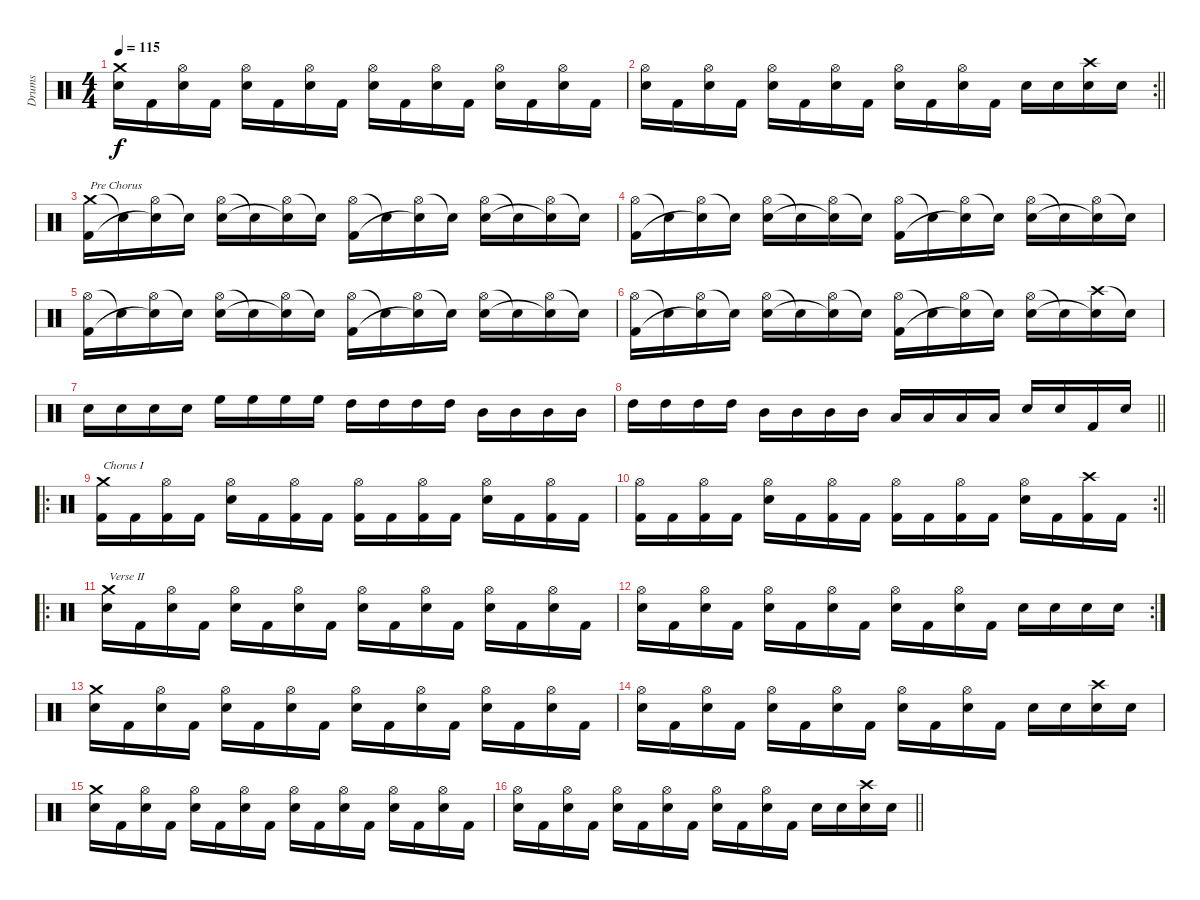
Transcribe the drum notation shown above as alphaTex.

\track ("Drums" "Drums") {instrument percussion}
\staff {score}
\articulation defaults
\ts (4 4)
\tempo 115
\clef neutral
\ks c
("Crash medium (hit)" "Electric Snare (hit)").16{dy f} "Kick (hit) 2".16 ("Hi-Hat (open)" "Electric Snare (hit)").16 "Kick (hit) 2".16 ("Hi-Hat (open)" "Electric Snare (hit)").16 "Kick (hit) 2".16 ("Hi-Hat (open)" "Electric Snare (hit)").16 "Kick (hit) 2".16 ("Hi-Hat (open)" "Electric Snare (hit)").16 "Kick (hit) 2".16 ("Hi-Hat (open)" "Electric Snare (hit)").16 "Kick (hit) 2".16 ("Hi-Hat (open)" "Electric Snare (hit)").16 "Kick (hit) 2".16 ("Hi-Hat (open)" "Electric Snare (hit)").16 "Kick (hit) 2".16 |
\rc 2
\barLineRight lightlight
("Hi-Hat (open)" "Electric Snare (hit)").16 "Kick (hit) 2".16 ("Hi-Hat (open)" "Electric Snare (hit)").16 "Kick (hit) 2".16 ("Hi-Hat (open)" "Electric Snare (hit)").16 "Kick (hit) 2".16 ("Hi-Hat (open)" "Electric Snare (hit)").16 "Kick (hit) 2".16 ("Hi-Hat (open)" "Electric Snare (hit)").16 "Kick (hit) 2".16 ("Hi-Hat (open)" "Electric Snare (hit)").16 "Kick (hit) 2".16 "Electric Snare (hit)".16 "Electric Snare (hit)".16 ("Crash high (hit)" "Electric Snare (hit)").16 "Electric Snare (hit)".16 |
("Crash medium (hit)" "Kick (hit) 2").16{txt "Pre Chorus"} "Snare (hit)"{t}.16 ("Hi-Hat (open)" "Snare (hit)"{t}).16 "Snare (hit)"{t}.16 ("Hi-Hat (open)" "Electric Snare (hit)").16 "Snare (hit)"{t}.16 ("Hi-Hat (open)" "Snare (hit)"{t}).16 "Snare (hit)"{t}.16 ("Hi-Hat (open)" "Kick (hit) 2").16 "Snare (hit)"{t}.16 ("Hi-Hat (open)" "Snare (hit)"{t}).16 "Snare (hit)"{t}.16 ("Hi-Hat (open)" "Electric Snare (hit)").16 "Snare (hit)"{t}.16 ("Hi-Hat (open)" "Snare (hit)"{t}).16 "Snare (hit)"{t}.16 |
("Hi-Hat (open)" "Kick (hit) 2").16 "Snare (hit)"{t}.16 ("Hi-Hat (open)" "Snare (hit)"{t}).16 "Snare (hit)"{t}.16 ("Hi-Hat (open)" "Electric Snare (hit)").16 "Snare (hit)"{t}.16 ("Hi-Hat (open)" "Snare (hit)"{t}).16 "Snare (hit)"{t}.16 ("Hi-Hat (open)" "Kick (hit) 2").16 "Snare (hit)"{t}.16 ("Hi-Hat (open)" "Snare (hit)"{t}).16 "Snare (hit)"{t}.16 ("Hi-Hat (open)" "Electric Snare (hit)").16 "Snare (hit)"{t}.16 ("Hi-Hat (open)" "Snare (hit)"{t}).16 "Snare (hit)"{t}.16 |
("Hi-Hat (open)" "Kick (hit) 2").16 "Snare (hit)"{t}.16 ("Hi-Hat (open)" "Snare (hit)"{t}).16 "Snare (hit)"{t}.16 ("Hi-Hat (open)" "Electric Snare (hit)").16 "Snare (hit)"{t}.16 ("Hi-Hat (open)" "Snare (hit)"{t}).16 "Snare (hit)"{t}.16 ("Hi-Hat (open)" "Kick (hit) 2").16 "Snare (hit)"{t}.16 ("Hi-Hat (open)" "Snare (hit)"{t}).16 "Snare (hit)"{t}.16 ("Hi-Hat (open)" "Electric Snare (hit)").16 "Snare (hit)"{t}.16 ("Hi-Hat (open)" "Snare (hit)"{t}).16 "Snare (hit)"{t}.16 |
("Hi-Hat (open)" "Kick (hit) 2").16 "Snare (hit)"{t}.16 ("Hi-Hat (open)" "Snare (hit)"{t}).16 "Snare (hit)"{t}.16 ("Hi-Hat (open)" "Electric Snare (hit)").16 "Snare (hit)"{t}.16 ("Hi-Hat (open)" "Snare (hit)"{t}).16 "Snare (hit)"{t}.16 ("Hi-Hat (open)" "Kick (hit) 2").16 "Snare (hit)"{t}.16 ("Hi-Hat (open)" "Snare (hit)"{t}).16 "Snare (hit)"{t}.16 ("Hi-Hat (open)" "Electric Snare (hit)").16 "Snare (hit)"{t}.16 ("Crash high (hit)" "Snare (hit)"{t}).16 "Snare (hit)"{t}.16 |
"Electric Snare (hit)".16 "Electric Snare (hit)".16 "Electric Snare (hit)".16 "Electric Snare (hit)".16 "High Floor Tom (hit)".16 "High Floor Tom (hit)".16 "High Floor Tom (hit)".16 "High Floor Tom (hit)".16 "High Tom (hit)".16 "High Tom (hit)".16 "High Tom (hit)".16 "High Tom (hit)".16 "Mid Tom (hit)".16 "Mid Tom (hit)".16 "Mid Tom (hit)".16 "Mid Tom (hit)".16 |
\barLineRight lightlight "High Tom (hit)".16 "High Tom (hit)".16 "High Tom (hit)".16 "High Tom (hit)".16 "Mid Tom (hit)".16 "Mid Tom (hit)".16 "Mid Tom (hit)".16 "Mid Tom (hit)".16 "Low Tom (hit)".16 "Low Tom (hit)".16 "Low Tom (hit)".16 "Low Tom (hit)".16 "Electric Snare (hit)".16 "Electric Snare (hit)".16 "Kick (hit) 2".16 "Electric Snare (hit)".16
|
\ro
("Crash medium (hit)" "Kick (hit) 2").16{txt "Chorus I"} "Kick (hit) 2".16 ("Hi-Hat (open)" "Kick (hit) 2").16 "Kick (hit) 2".16 ("Hi-Hat (open)" "Electric Snare (hit)").16 "Kick (hit) 2".16 ("Hi-Hat (open)" "Kick (hit) 2").16 "Kick (hit) 2".16 ("Hi-Hat (open)" "Kick (hit) 2").16 "Kick (hit) 2".16 ("Hi-Hat (open)" "Kick (hit) 2").16 "Kick (hit) 2".16 ("Hi-Hat (open)" "Electric Snare (hit)").16 "Kick (hit) 2".16 ("Hi-Hat (open)" "Kick (hit) 2").16 "Kick (hit) 2".16 |
\rc 2
\barLineRight lightlight
("Hi-Hat (open)" "Kick (hit) 2").16 "Kick (hit) 2".16 ("Hi-Hat (open)" "Kick (hit) 2").16 "Kick (hit) 2".16 ("Hi-Hat (open)" "Electric Snare (hit)").16 "Kick (hit) 2".16 ("Hi-Hat (open)" "Kick (hit) 2").16 "Kick (hit) 2".16 ("Hi-Hat (open)" "Kick (hit) 2").16 "Kick (hit) 2".16 ("Hi-Hat (open)" "Kick (hit) 2").16 "Kick (hit) 2".16 ("Hi-Hat (open)" "Electric Snare (hit)").16 "Kick (hit) 2".16 ("Crash high (hit)" "Kick (hit) 2").16 "Kick (hit) 2".16 |
\ro
("Crash medium (hit)" "Electric Snare (hit)").16{txt "Verse II"} "Kick (hit) 2".16 ("Hi-Hat (open)" "Electric Snare (hit)").16 "Kick (hit) 2".16 ("Hi-Hat (open)" "Electric Snare (hit)").16 "Kick (hit) 2".16 ("Hi-Hat (open)" "Electric Snare (hit)").16 "Kick (hit) 2".16 ("Hi-Hat (open)" "Electric Snare (hit)").16 "Kick (hit) 2".16 ("Hi-Hat (open)" "Electric Snare (hit)").16 "Kick (hit) 2".16 ("Hi-Hat (open)" "Electric Snare (hit)").16 "Kick (hit) 2".16 ("Hi-Hat (open)" "Electric Snare (hit)").16 "Kick (hit) 2".16 |
\rc 2
("Hi-Hat (open)" "Electric Snare (hit)").16 "Kick (hit) 2".16 ("Hi-Hat (open)" "Electric Snare (hit)").16 "Kick (hit) 2".16 ("Hi-Hat (open)" "Electric Snare (hit)").16 "Kick (hit) 2".16 ("Hi-Hat (open)" "Electric Snare (hit)").16 "Kick (hit) 2".16 ("Hi-Hat (open)" "Electric Snare (hit)").16 "Kick (hit) 2".16 ("Hi-Hat (open)" "Electric Snare (hit)").16 "Kick (hit) 2".16 "Electric Snare (hit)".16 "Electric Snare (hit)".16 "Electric Snare (hit)".16 "Electric Snare (hit)".16 |
("Crash medium (hit)" "Electric Snare (hit)").16 "Kick (hit) 2".16 ("Hi-Hat (open)" "Electric Snare (hit)").16 "Kick (hit) 2".16 ("Hi-Hat (open)" "Electric Snare (hit)").16 "Kick (hit) 2".16 ("Hi-Hat (open)" "Electric Snare (hit)").16 "Kick (hit) 2".16 ("Hi-Hat (open)" "Electric Snare (hit)").16 "Kick (hit) 2".16 ("Hi-Hat (open)" "Electric Snare (hit)").16 "Kick (hit) 2".16 ("Hi-Hat (open)" "Electric Snare (hit)").16 "Kick (hit) 2".16 ("Hi-Hat (open)" "Electric Snare (hit)").16 "Kick (hit) 2".16 |
("Hi-Hat (open)" "Electric Snare (hit)").16 "Kick (hit) 2".16 ("Hi-Hat (open)" "Electric Snare (hit)").16 "Kick (hit) 2".16 ("Hi-Hat (open)" "Electric Snare (hit)").16 "Kick (hit) 2".16 ("Hi-Hat (open)" "Electric Snare (hit)").16 "Kick (hit) 2".16 ("Hi-Hat (open)" "Electric Snare (hit)").16 "Kick (hit) 2".16 ("Hi-Hat (open)" "Electric Snare (hit)").16 "Kick (hit) 2".16 "Electric Snare (hit)".16 "Electric Snare (hit)".16 ("Crash high (hit)" "Electric Snare (hit)").16 "Electric Snare (hit)".16 |
("Crash medium (hit)" "Electric Snare (hit)").16 "Kick (hit) 2".16 ("Hi-Hat (open)" "Electric Snare (hit)").16 "Kick (hit) 2".16 ("Hi-Hat (open)" "Electric Snare (hit)").16 "Kick (hit) 2".16 ("Hi-Hat (open)" "Electric Snare (hit)").16 "Kick (hit) 2".16 ("Hi-Hat (open)" "Electric Snare (hit)").16 "Kick (hit) 2".16 ("Hi-Hat (open)" "Electric Snare (hit)").16 "Kick (hit) 2".16 ("Hi-Hat (open)" "Electric Snare (hit)").16 "Kick (hit) 2".16 ("Hi-Hat (open)" "Electric Snare (hit)").16 "Kick (hit) 2".16 |
\barLineRight lightlight
("Hi-Hat (open)" "Electric Snare (hit)").16 "Kick (hit) 2".16 ("Hi-Hat (open)" "Electric Snare (hit)").16 "Kick (hit) 2".16 ("Hi-Hat (open)" "Electric Snare (hit)").16 "Kick (hit) 2".16 ("Hi-Hat (open)" "Electric Snare (hit)").16 "Kick (hit) 2".16 ("Hi-Hat (open)" "Electric Snare (hit)").16 "Kick (hit) 2".16 ("Hi-Hat (open)" "Electric Snare (hit)").16 "Kick (hit) 2".16 "Electric Snare (hit)".16 "Electric Snare (hit)".16 ("Crash high (hit)" "Electric Snare (hit)").16 "Electric Snare (hit)".16
